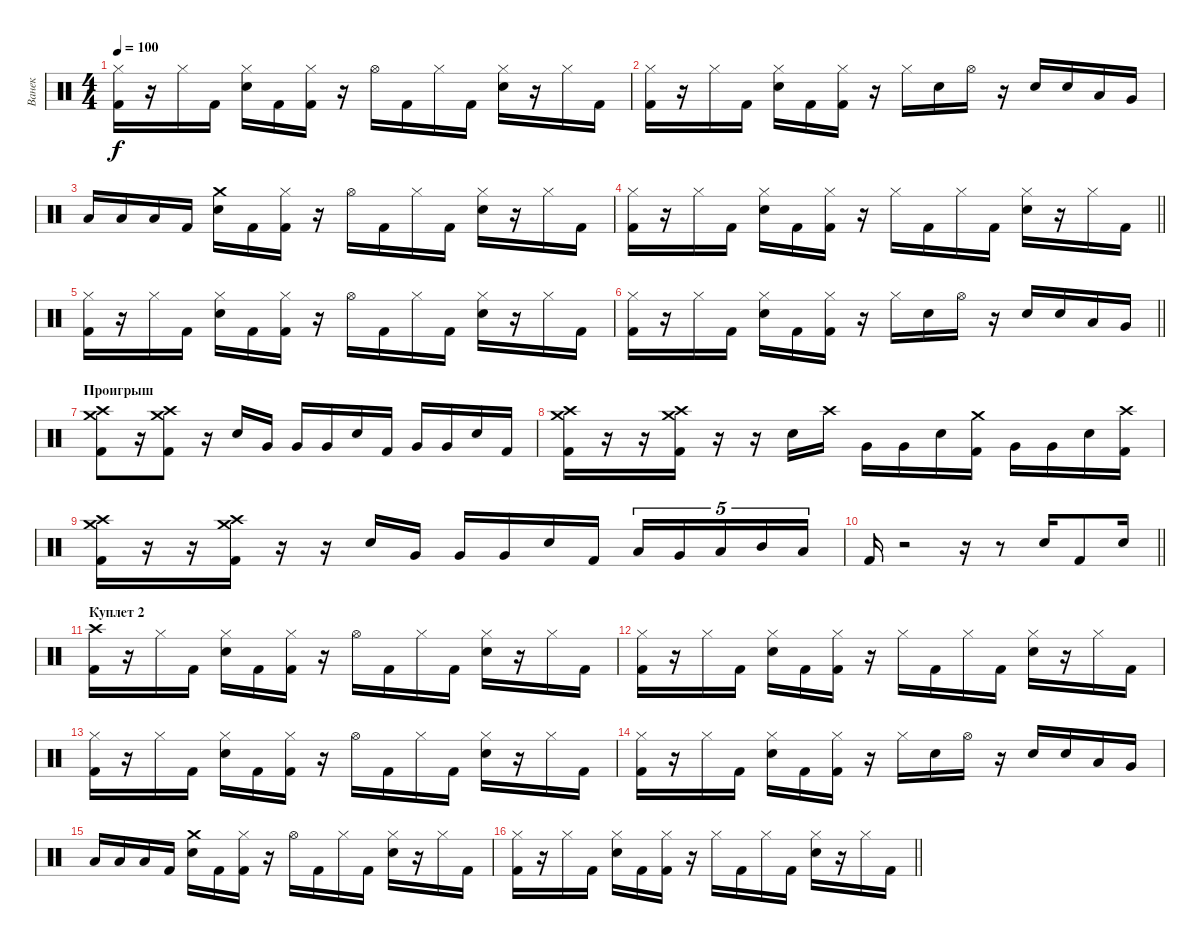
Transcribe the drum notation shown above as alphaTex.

\track ("Ванек" "Ванек") {instrument percussion}
\staff {score}
\articulation defaults
\ts (4 4)
\tempo 100
\clef neutral
\ks c
("Hi-Hat (closed)" "Kick (hit) 2").16{dy f} r.16 "Hi-Hat (closed)".16 "Kick (hit) 2".16 ("Hi-Hat (closed)" "Snare (hit) 2").16 "Kick (hit) 2".16 ("Hi-Hat (closed)" "Kick (hit) 2").16 r.16 "Hi-Hat (open)".16 "Kick (hit) 2".16 "Hi-Hat (closed)".16 "Kick (hit) 2".16 ("Hi-Hat (closed)" "Snare (hit) 2").16 r.16 "Hi-Hat (closed)".16 "Kick (hit) 2".16 |
("Hi-Hat (closed)" "Kick (hit) 2").16 r.16 "Hi-Hat (closed)".16 "Kick (hit) 2".16 ("Hi-Hat (closed)" "Snare (hit) 2").16 "Kick (hit) 2".16 ("Hi-Hat (closed)" "Kick (hit) 2").16 r.16 "Hi-Hat (closed)".16 "Snare (hit) 2".16 "Hi-Hat (open)".16 r.16 "Snare (hit) 2".16 "Snare (hit) 2".16 "Low Tom (hit)".16 "Very Low Tom (hit)".16 |
"Low Floor Tom (hit)".16 "Low Floor Tom (hit)".16 "Low Floor Tom (hit)".16 "Kick (hit) 2".16 ("Crash medium (hit)" "Snare (hit) 2").16 "Kick (hit) 2".16 ("Hi-Hat (closed)" "Kick (hit) 2").16 r.16 "Hi-Hat (open)".16 "Kick (hit) 2".16 "Hi-Hat (closed)".16 "Kick (hit) 2".16 ("Hi-Hat (closed)" "Snare (hit) 2").16 r.16 "Hi-Hat (closed)".16 "Kick (hit) 2".16 |
\barLineRight lightlight
("Hi-Hat (closed)" "Kick (hit) 2").16 r.16 "Hi-Hat (closed)".16 "Kick (hit) 2".16 ("Hi-Hat (closed)" "Snare (hit) 2").16 "Kick (hit) 2".16 ("Hi-Hat (closed)" "Kick (hit) 2").16 r.16 "Hi-Hat (closed)".16 "Kick (hit) 2".16 "Hi-Hat (closed)".16 "Kick (hit) 2".16 ("Hi-Hat (closed)" "Snare (hit) 2").16 r.16 "Hi-Hat (closed)".16 "Kick (hit) 2".16 |
\section ("" "")
("Hi-Hat (closed)" "Kick (hit) 2").16 r.16 "Hi-Hat (closed)".16 "Kick (hit) 2".16 ("Hi-Hat (closed)" "Snare (hit) 2").16 "Kick (hit) 2".16 ("Hi-Hat (closed)" "Kick (hit) 2").16 r.16 "Hi-Hat (open)".16 "Kick (hit) 2".16 "Hi-Hat (closed)".16 "Kick (hit) 2".16 ("Hi-Hat (closed)" "Snare (hit) 2").16 r.16 "Hi-Hat (closed)".16 "Kick (hit) 2".16 |
\barLineRight lightlight
("Hi-Hat (closed)" "Kick (hit) 2").16 r.16 "Hi-Hat (closed)".16 "Kick (hit) 2".16 ("Hi-Hat (closed)" "Snare (hit) 2").16 "Kick (hit) 2".16 ("Hi-Hat (closed)" "Kick (hit) 2").16 r.16 "Hi-Hat (closed)".16 "Snare (hit) 2".16 "Hi-Hat (open)".16 r.16 "Snare (hit) 2".16 "Snare (hit) 2".16 "Low Tom (hit)".16 "Very Low Tom (hit)".16 |
\section ("" "Проигрыш")
("Crash high (hit)" "Crash medium (hit)" "Kick (hit) 2").8 r.16 ("Crash high (hit)" "Crash medium (hit)" "Kick (hit) 2").8 r.16 "Snare (hit) 2".16 "Very Low Tom (hit)".16 "Very Low Tom (hit)".16 "Very Low Tom (hit)".16 "Snare (hit) 2".16 "Kick (hit) 2".16 "Very Low Tom (hit)".16 "Very Low Tom (hit)".16 "Snare (hit) 2".16 "Kick (hit) 2".16 |
("Crash high (hit)" "Crash medium (hit)" "Kick (hit) 2").16 r.16 r.16 ("Crash high (hit)" "Crash medium (hit)" "Kick (hit) 2").16 r.16 r.16 "Snare (hit) 2".16 "Crash high (hit)".16 "Very Low Tom (hit)".16 "Very Low Tom (hit)".16 "Snare (hit) 2".16 ("Crash medium (hit)" "Kick (hit) 2").16 "Very Low Tom (hit)".16 "Very Low Tom (hit)".16 "Snare (hit) 2".16 ("Crash high (hit)" "Kick (hit) 2").16 |
("Crash high (hit)" "Crash medium (hit)" "Kick (hit) 2").16 r.16 r.16 ("Crash high (hit)" "Crash medium (hit)" "Kick (hit) 2").16 r.16 r.16 "Snare (hit) 2".16 "Very Low Tom (hit)".16 "Very Low Tom (hit)".16 "Very Low Tom (hit)".16 "Snare (hit) 2".16 "Kick (hit) 2".16 "Low Floor Tom (hit)".16{tu (5 4)} "Very Low Tom (hit)".16{tu (5 4)} "Low Tom (hit)".16{tu (5 4)} "Mid Tom (hit)".16{tu (5 4)} "Low Tom (hit)".16{tu (5 4)} |
\barLineRight lightlight "Kick (hit) 2".16
r.2 r.16 r.8 "Snare (hit) 2".16 "Kick (hit) 2".8 "Snare (hit) 2".16 |
\section ("" "Куплет 2")
("Crash high (hit)" "Kick (hit) 2").16 r.16 "Hi-Hat (closed)".16 "Kick (hit) 2".16 ("Hi-Hat (closed)" "Snare (hit) 2").16 "Kick (hit) 2".16 ("Hi-Hat (closed)" "Kick (hit) 2").16 r.16 "Hi-Hat (open)".16 "Kick (hit) 2".16 "Hi-Hat (closed)".16 "Kick (hit) 2".16 ("Hi-Hat (closed)" "Snare (hit) 2").16 r.16 "Hi-Hat (closed)".16 "Kick (hit) 2".16 |
("Hi-Hat (closed)" "Kick (hit) 2").16 r.16 "Hi-Hat (closed)".16 "Kick (hit) 2".16 ("Hi-Hat (closed)" "Snare (hit) 2").16 "Kick (hit) 2".16 ("Hi-Hat (closed)" "Kick (hit) 2").16 r.16 "Hi-Hat (closed)".16 "Kick (hit) 2".16 "Hi-Hat (closed)".16 "Kick (hit) 2".16 ("Hi-Hat (closed)" "Snare (hit) 2").16 r.16 "Hi-Hat (closed)".16 "Kick (hit) 2".16 |
("Hi-Hat (closed)" "Kick (hit) 2").16 r.16 "Hi-Hat (closed)".16 "Kick (hit) 2".16 ("Hi-Hat (closed)" "Snare (hit) 2").16 "Kick (hit) 2".16 ("Hi-Hat (closed)" "Kick (hit) 2").16 r.16 "Hi-Hat (open)".16 "Kick (hit) 2".16 "Hi-Hat (closed)".16 "Kick (hit) 2".16 ("Hi-Hat (closed)" "Snare (hit) 2").16 r.16 "Hi-Hat (closed)".16 "Kick (hit) 2".16 |
("Hi-Hat (closed)" "Kick (hit) 2").16 r.16 "Hi-Hat (closed)".16 "Kick (hit) 2".16 ("Hi-Hat (closed)" "Snare (hit) 2").16 "Kick (hit) 2".16 ("Hi-Hat (closed)" "Kick (hit) 2").16 r.16 "Hi-Hat (closed)".16 "Snare (hit) 2".16 "Hi-Hat (open)".16 r.16 "Snare (hit) 2".16 "Snare (hit) 2".16 "Low Tom (hit)".16 "Very Low Tom (hit)".16 |
"Low Floor Tom (hit)".16 "Low Floor Tom (hit)".16 "Low Floor Tom (hit)".16 "Kick (hit) 2".16 ("Crash medium (hit)" "Snare (hit) 2").16 "Kick (hit) 2".16 ("Hi-Hat (closed)" "Kick (hit) 2").16 r.16 "Hi-Hat (open)".16 "Kick (hit) 2".16 "Hi-Hat (closed)".16 "Kick (hit) 2".16 ("Hi-Hat (closed)" "Snare (hit) 2").16 r.16 "Hi-Hat (closed)".16 "Kick (hit) 2".16 |
\barLineRight lightlight
("Hi-Hat (closed)" "Kick (hit) 2").16 r.16 "Hi-Hat (closed)".16 "Kick (hit) 2".16 ("Hi-Hat (closed)" "Snare (hit) 2").16 "Kick (hit) 2".16 ("Hi-Hat (closed)" "Kick (hit) 2").16 r.16 "Hi-Hat (closed)".16 "Kick (hit) 2".16 "Hi-Hat (closed)".16 "Kick (hit) 2".16 ("Hi-Hat (closed)" "Snare (hit) 2").16 r.16 "Hi-Hat (closed)".16 "Kick (hit) 2".16
